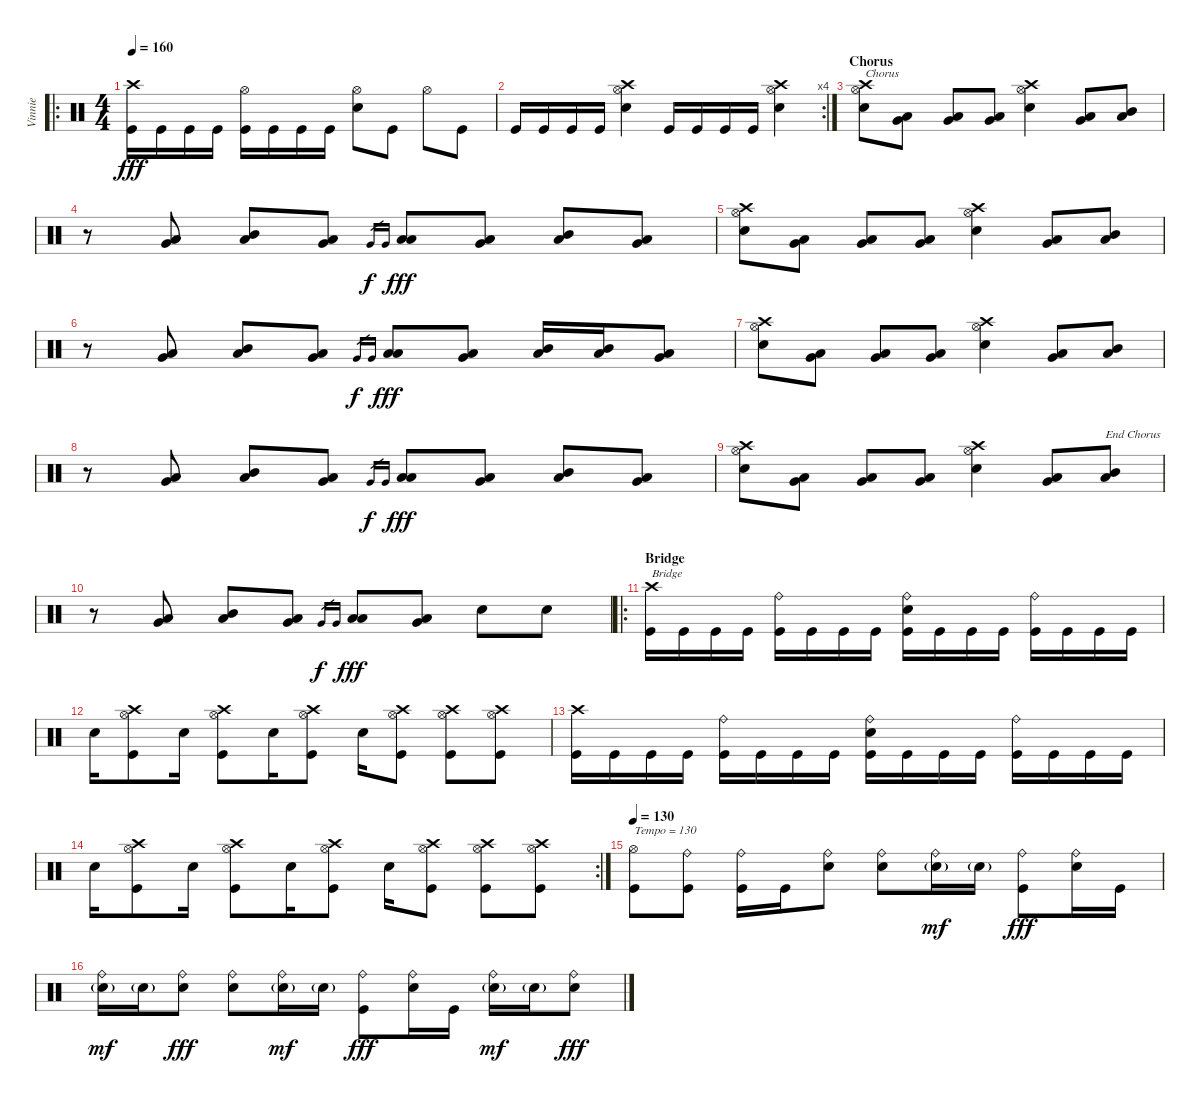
\track ("Vinnie" "Vinnie") {instrument percussion}
\staff {score}
\articulation defaults
\ro
\ts (4 4)
\tempo 160
\clef neutral
\ks c
("Kick (hit)" "Crash high (hit)").16{dy fff} "Kick (hit)".16 "Kick (hit)".16 "Kick (hit)".16 ("Kick (hit)" "Hi-Hat (open)").16 "Kick (hit)".16 "Kick (hit)".16 "Kick (hit)".16 ("Electric Snare (hit)" "Hi-Hat (open)").8 "Kick (hit)".8 "Hi-Hat (open)".8 "Kick (hit)".8 |
\rc 4 "Kick (hit)".16 "Kick (hit)".16 "Kick (hit)".16 "Kick (hit)".16
("Electric Snare (hit)" "Crash high (hit)" "Hi-Hat (open)").4 "Kick (hit)".16 "Kick (hit)".16 "Kick (hit)".16 "Kick (hit)".16 ("Electric Snare (hit)" "Crash high (hit)" "Hi-Hat (open)").4 |
\section ("" "Chorus")
("Electric Snare (hit)" "Crash high (hit)" "Hi-Hat (open)").8{txt "Chorus"} ("Low Tom (hit)" "Very Low Tom (hit)").8 ("Low Tom (hit)" "Very Low Tom (hit)").8 ("Low Tom (hit)" "Very Low Tom (hit)").8 ("Electric Snare (hit)" "Crash high (hit)" "Hi-Hat (open)").4 ("Low Tom (hit)" "Very Low Tom (hit)").8 ("Mid Tom (hit)" "Low Tom (hit)").8 |
r.8 ("Low Tom (hit)" "Very Low Tom (hit)").8 ("Mid Tom (hit)" "Low Tom (hit)").8 ("Low Tom (hit)" "Very Low Tom (hit)").8 "Very Low Tom (hit)".16{gr dy f} "Very Low Tom (hit)".16{gr} ("Low Tom (hit)" "Low Tom (hit)").8{dy fff} ("Low Tom (hit)" "Very Low Tom (hit)").8 ("Mid Tom (hit)" "Low Tom (hit)").8 ("Low Tom (hit)" "Very Low Tom (hit)").8 |
("Electric Snare (hit)" "Crash high (hit)" "Hi-Hat (open)").8 ("Low Tom (hit)" "Very Low Tom (hit)").8 ("Low Tom (hit)" "Very Low Tom (hit)").8 ("Low Tom (hit)" "Very Low Tom (hit)").8 ("Electric Snare (hit)" "Crash high (hit)" "Hi-Hat (open)").4 ("Low Tom (hit)" "Very Low Tom (hit)").8 ("Mid Tom (hit)" "Low Tom (hit)").8 |
r.8 ("Low Tom (hit)" "Very Low Tom (hit)").8 ("Mid Tom (hit)" "Low Tom (hit)").8 ("Low Tom (hit)" "Very Low Tom (hit)").8 "Very Low Tom (hit)".16{gr dy f} "Very Low Tom (hit)".16{gr} ("Low Tom (hit)" "Low Tom (hit)").8{dy fff} ("Low Tom (hit)" "Very Low Tom (hit)").8 ("Mid Tom (hit)" "Low Tom (hit)").16 ("Mid Tom (hit)" "Low Tom (hit)").16 ("Low Tom (hit)" "Very Low Tom (hit)").8 |
("Electric Snare (hit)" "Crash high (hit)" "Hi-Hat (open)").8 ("Low Tom (hit)" "Very Low Tom (hit)").8 ("Low Tom (hit)" "Very Low Tom (hit)").8 ("Low Tom (hit)" "Very Low Tom (hit)").8 ("Electric Snare (hit)" "Crash high (hit)" "Hi-Hat (open)").4 ("Low Tom (hit)" "Very Low Tom (hit)").8 ("Mid Tom (hit)" "Low Tom (hit)").8 |
r.8 ("Low Tom (hit)" "Very Low Tom (hit)").8 ("Mid Tom (hit)" "Low Tom (hit)").8 ("Low Tom (hit)" "Very Low Tom (hit)").8 "Very Low Tom (hit)".16{gr dy f} "Very Low Tom (hit)".16{gr} ("Low Tom (hit)" "Low Tom (hit)").8{dy fff} ("Low Tom (hit)" "Very Low Tom (hit)").8 ("Mid Tom (hit)" "Low Tom (hit)").8 ("Low Tom (hit)" "Very Low Tom (hit)").8 |
("Electric Snare (hit)" "Crash high (hit)" "Hi-Hat (open)").8 ("Low Tom (hit)" "Very Low Tom (hit)").8 ("Low Tom (hit)" "Very Low Tom (hit)").8 ("Low Tom (hit)" "Very Low Tom (hit)").8 ("Electric Snare (hit)" "Crash high (hit)" "Hi-Hat (open)").4 ("Low Tom (hit)" "Very Low Tom (hit)").8 ("Mid Tom (hit)" "Low Tom (hit)").8{txt "End Chorus"} |
r.8 ("Low Tom (hit)" "Very Low Tom (hit)").8 ("Mid Tom (hit)" "Low Tom (hit)").8 ("Low Tom (hit)" "Very Low Tom (hit)").8 "Very Low Tom (hit)".16{gr dy f} "Very Low Tom (hit)".16{gr} ("Low Tom (hit)" "Low Tom (hit)").8{dy fff} ("Low Tom (hit)" "Very Low Tom (hit)").8 "Electric Snare (hit)".8 "Electric Snare (hit)".8 |
\ro
\section ("" "Bridge")
("Kick (hit)" "Crash high (hit)").16{txt "Bridge"} "Kick (hit)".16 "Kick (hit)".16 "Kick (hit)".16 ("Kick (hit)" "Ride (bell)").16 "Kick (hit)".16 "Kick (hit)".16 "Kick (hit)".16 ("Electric Snare (hit)" "Kick (hit)" "Ride (bell)").16 "Kick (hit)".16 "Kick (hit)".16 "Kick (hit)".16 ("Kick (hit)" "Ride (bell)").16 "Kick (hit)".16 "Kick (hit)".16 "Kick (hit)".16 |
"Electric Snare (hit)".16 ("Kick (hit)" "Crash high (hit)" "Hi-Hat (open)").8 "Electric Snare (hit)".16 ("Kick (hit)" "Crash high (hit)" "Hi-Hat (open)").8 "Electric Snare (hit)".16 ("Kick (hit)" "Crash high (hit)" "Hi-Hat (open)").8 "Electric Snare (hit)".16 ("Kick (hit)" "Crash high (hit)" "Hi-Hat (open)").8 ("Kick (hit)" "Crash high (hit)" "Hi-Hat (open)").8 ("Kick (hit)" "Crash high (hit)" "Hi-Hat (open)").8 |
("Kick (hit)" "Crash high (hit)").16 "Kick (hit)".16 "Kick (hit)".16 "Kick (hit)".16 ("Kick (hit)" "Ride (bell)").16 "Kick (hit)".16 "Kick (hit)".16 "Kick (hit)".16 ("Electric Snare (hit)" "Kick (hit)" "Ride (bell)").16 "Kick (hit)".16 "Kick (hit)".16 "Kick (hit)".16 ("Kick (hit)" "Ride (bell)").16 "Kick (hit)".16 "Kick (hit)".16 "Kick (hit)".16 |
\rc 2 "Electric Snare (hit)".16
("Kick (hit)" "Crash high (hit)" "Hi-Hat (open)").8 "Electric Snare (hit)".16 ("Kick (hit)" "Crash high (hit)" "Hi-Hat (open)").8 "Electric Snare (hit)".16 ("Kick (hit)" "Crash high (hit)" "Hi-Hat (open)").8 "Electric Snare (hit)".16 ("Kick (hit)" "Crash high (hit)" "Hi-Hat (open)").8 ("Kick (hit)" "Crash high (hit)" "Hi-Hat (open)").8 ("Kick (hit)" "Crash high (hit)" "Hi-Hat (open)").8 |
\tempo 130
("Kick (hit)" "Hi-Hat (open)").8{txt "Tempo = 130"} ("Kick (hit)" "Ride (bell)").8 ("Kick (hit)" "Ride (bell)").16 "Kick (hit)".16 ("Electric Snare (hit)" "Ride (bell)").8 ("Electric Snare (hit)" "Ride (bell)").8 ("Electric Snare (hit)"{g} "Ride (bell)").16{dy mf} "Electric Snare (hit)"{g}.16 ("Kick (hit)" "Ride (bell)").8{dy fff} ("Electric Snare (hit)" "Ride (bell)").16 "Kick (hit)".16 |
("Electric Snare (hit)"{g} "Ride (bell)").16{dy mf} "Electric Snare (hit)"{g}.16 ("Electric Snare (hit)" "Ride (bell)").8{dy fff} ("Electric Snare (hit)" "Ride (bell)").8 ("Electric Snare (hit)"{g} "Ride (bell)").16{dy mf} "Electric Snare (hit)"{g}.16 ("Kick (hit)" "Ride (bell)").8{dy fff} ("Electric Snare (hit)" "Ride (bell)").16 "Kick (hit)".16 ("Electric Snare (hit)"{g} "Ride (bell)").16{dy mf} "Electric Snare (hit)"{g}.16 ("Electric Snare (hit)" "Ride (bell)").8{dy fff}
